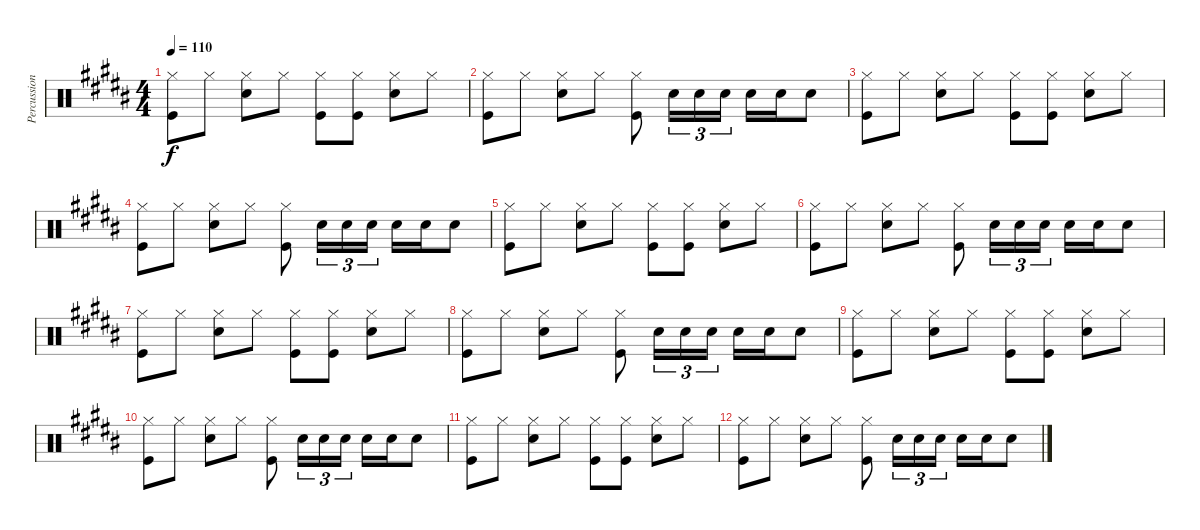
\track ("Percussions" "Percussion") {instrument percussion}
\staff {score}
\articulation defaults
\ts (4 4)
\tempo 110
\clef neutral
\ks b
("Hi-Hat (closed)" "Kick (hit)").8{dy f} "Hi-Hat (closed)".8 ("Hi-Hat (closed)" "Snare (hit) 2").8 "Hi-Hat (closed)".8 ("Hi-Hat (closed)" "Kick (hit)").8 ("Hi-Hat (closed)" "Kick (hit)").8 ("Hi-Hat (closed)" "Snare (hit) 2").8 "Hi-Hat (closed)".8 |
("Hi-Hat (closed)" "Kick (hit)").8 "Hi-Hat (closed)".8 ("Hi-Hat (closed)" "Snare (hit) 2").8 "Hi-Hat (closed)".8 ("Hi-Hat (closed)" "Kick (hit)").8 "Snare (hit) 2".16{tu (3 2)} "Snare (hit)".16{tu (3 2)} "Snare (hit) 2".16{tu (3 2)} "Snare (hit) 2".16 "Snare (hit) 2".16 "Snare (hit) 2".8 |
("Hi-Hat (closed)" "Kick (hit)").8 "Hi-Hat (closed)".8 ("Hi-Hat (closed)" "Snare (hit) 2").8 "Hi-Hat (closed)".8 ("Hi-Hat (closed)" "Kick (hit)").8 ("Hi-Hat (closed)" "Kick (hit)").8 ("Hi-Hat (closed)" "Snare (hit) 2").8 "Hi-Hat (closed)".8 |
("Hi-Hat (closed)" "Kick (hit)").8 "Hi-Hat (closed)".8 ("Hi-Hat (closed)" "Snare (hit) 2").8 "Hi-Hat (closed)".8 ("Hi-Hat (closed)" "Kick (hit)").8 "Snare (hit) 2".16{tu (3 2)} "Snare (hit)".16{tu (3 2)} "Snare (hit) 2".16{tu (3 2)} "Snare (hit) 2".16 "Snare (hit) 2".16 "Snare (hit) 2".8 |
("Hi-Hat (closed)" "Kick (hit)").8 "Hi-Hat (closed)".8 ("Hi-Hat (closed)" "Snare (hit) 2").8 "Hi-Hat (closed)".8 ("Hi-Hat (closed)" "Kick (hit)").8 ("Hi-Hat (closed)" "Kick (hit)").8 ("Hi-Hat (closed)" "Snare (hit) 2").8 "Hi-Hat (closed)".8 |
("Hi-Hat (closed)" "Kick (hit)").8 "Hi-Hat (closed)".8 ("Hi-Hat (closed)" "Snare (hit) 2").8 "Hi-Hat (closed)".8 ("Hi-Hat (closed)" "Kick (hit)").8 "Snare (hit) 2".16{tu (3 2)} "Snare (hit)".16{tu (3 2)} "Snare (hit) 2".16{tu (3 2)} "Snare (hit) 2".16 "Snare (hit) 2".16 "Snare (hit) 2".8 |
("Hi-Hat (closed)" "Kick (hit)").8 "Hi-Hat (closed)".8 ("Hi-Hat (closed)" "Snare (hit) 2").8 "Hi-Hat (closed)".8 ("Hi-Hat (closed)" "Kick (hit)").8 ("Hi-Hat (closed)" "Kick (hit)").8 ("Hi-Hat (closed)" "Snare (hit) 2").8 "Hi-Hat (closed)".8 |
("Hi-Hat (closed)" "Kick (hit)").8 "Hi-Hat (closed)".8 ("Hi-Hat (closed)" "Snare (hit) 2").8 "Hi-Hat (closed)".8 ("Hi-Hat (closed)" "Kick (hit)").8 "Snare (hit) 2".16{tu (3 2)} "Snare (hit)".16{tu (3 2)} "Snare (hit) 2".16{tu (3 2)} "Snare (hit) 2".16 "Snare (hit) 2".16 "Snare (hit) 2".8 |
("Hi-Hat (closed)" "Kick (hit)").8 "Hi-Hat (closed)".8 ("Hi-Hat (closed)" "Snare (hit) 2").8 "Hi-Hat (closed)".8 ("Hi-Hat (closed)" "Kick (hit)").8 ("Hi-Hat (closed)" "Kick (hit)").8 ("Hi-Hat (closed)" "Snare (hit) 2").8 "Hi-Hat (closed)".8 |
("Hi-Hat (closed)" "Kick (hit)").8 "Hi-Hat (closed)".8 ("Hi-Hat (closed)" "Snare (hit) 2").8 "Hi-Hat (closed)".8 ("Hi-Hat (closed)" "Kick (hit)").8 "Snare (hit) 2".16{tu (3 2)} "Snare (hit)".16{tu (3 2)} "Snare (hit) 2".16{tu (3 2)} "Snare (hit) 2".16 "Snare (hit) 2".16 "Snare (hit) 2".8 |
("Hi-Hat (closed)" "Kick (hit)").8 "Hi-Hat (closed)".8 ("Hi-Hat (closed)" "Snare (hit) 2").8 "Hi-Hat (closed)".8 ("Hi-Hat (closed)" "Kick (hit)").8 ("Hi-Hat (closed)" "Kick (hit)").8 ("Hi-Hat (closed)" "Snare (hit) 2").8 "Hi-Hat (closed)".8 |
("Hi-Hat (closed)" "Kick (hit)").8 "Hi-Hat (closed)".8 ("Hi-Hat (closed)" "Snare (hit) 2").8 "Hi-Hat (closed)".8 ("Hi-Hat (closed)" "Kick (hit)").8 "Snare (hit) 2".16{tu (3 2)} "Snare (hit)".16{tu (3 2)} "Snare (hit) 2".16{tu (3 2)} "Snare (hit) 2".16 "Snare (hit) 2".16 "Snare (hit) 2".8
